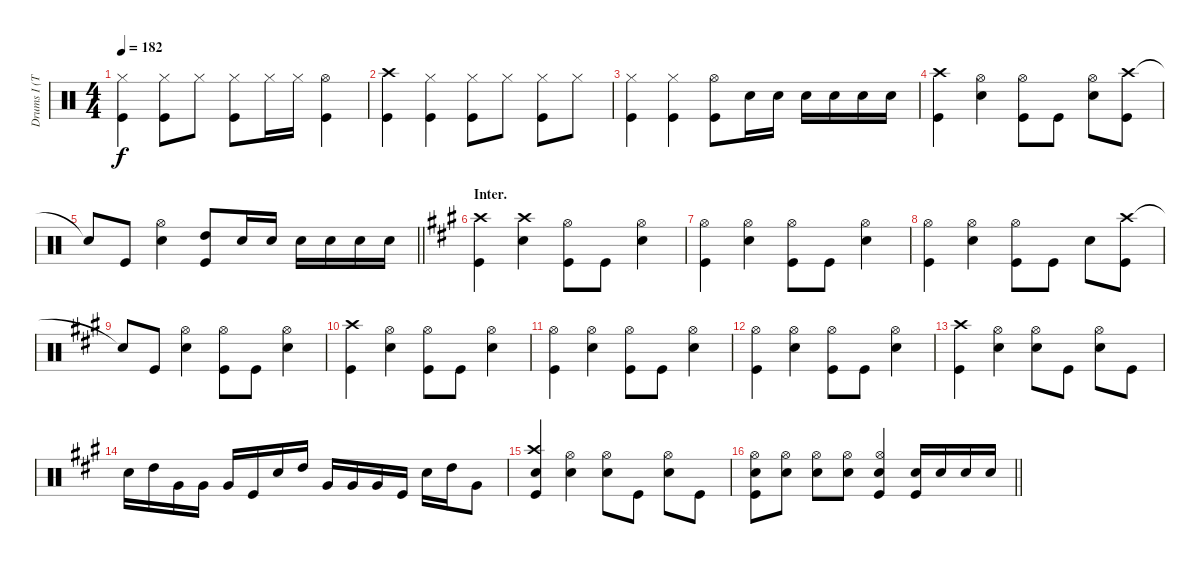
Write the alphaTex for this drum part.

\track ("Drums I (Tainaka Ritsu)" "Drums I (T") {instrument percussion}
\staff {score}
\articulation defaults
\ts (4 4)
\tempo 182
\clef neutral
\ks c
("Hi-Hat (closed)" "Kick (hit)").4{dy f} ("Hi-Hat (closed)" "Kick (hit)").8 "Hi-Hat (closed)".8 ("Hi-Hat (closed)" "Kick (hit)").8 "Hi-Hat (closed)".16 "Hi-Hat (closed)".16 ("Hi-Hat (open)" "Kick (hit)").4 |
("Crash high (hit)" "Kick (hit)").4 ("Hi-Hat (closed)" "Kick (hit)").4 ("Hi-Hat (closed)" "Kick (hit)").8 "Hi-Hat (closed)".8 ("Hi-Hat (closed)" "Kick (hit)").8 "Hi-Hat (closed)".8 |
("Hi-Hat (closed)" "Kick (hit)").4 ("Hi-Hat (closed)" "Kick (hit)").4 ("Hi-Hat (open)" "Kick (hit)").8 "Snare (hit) 2".16 "Snare (hit) 2".16 "Snare (hit) 2".16 "Snare (hit) 2".16 "Snare (hit) 2".16 "Snare (hit) 2".16 |
("Crash high (hit)" "Kick (hit)").4 ("Hi-Hat (open)" "Snare (hit) 2").4 ("Hi-Hat (open)" "Kick (hit)").8 "Kick (hit)".8 ("Hi-Hat (open)" "Snare (hit) 2").8 ("Crash high (hit)" "Kick (hit)").8 |
\barLineRight lightlight "Snare (hit)"{t}.8 "Kick (hit)".8
("Hi-Hat (open)" "Snare (hit) 2").4 ("High Tom (hit)" "Kick (hit)").8 "Snare (hit) 2".16 "Snare (hit) 2".16 "Snare (hit) 2".16 "Snare (hit) 2".16 "Snare (hit) 2".16 "Snare (hit) 2".16 |
\section ("" "Inter.")
\ks a
("Crash high (hit)" "Kick (hit)").4 ("Crash high (hit)" "Snare (hit) 2").4 ("Hi-Hat (open)" "Kick (hit)").8 "Kick (hit)".8 ("Hi-Hat (open)" "Snare (hit) 2").4 |
("Hi-Hat (open)" "Kick (hit)").4 ("Hi-Hat (open)" "Snare (hit) 2").4 ("Hi-Hat (open)" "Kick (hit)").8 "Kick (hit)".8 ("Hi-Hat (open)" "Snare (hit) 2").4 |
("Hi-Hat (open)" "Kick (hit)").4 ("Hi-Hat (open)" "Snare (hit) 2").4 ("Hi-Hat (open)" "Kick (hit)").8 "Kick (hit)".8 "Snare (hit) 2".8 ("Crash high (hit)" "Kick (hit)").8 |
"Snare (hit)"{t}.8 "Kick (hit)".8 ("Hi-Hat (open)" "Snare (hit) 2").4 ("Hi-Hat (open)" "Kick (hit)").8 "Kick (hit)".8 ("Hi-Hat (open)" "Snare (hit) 2").4 |
("Crash high (hit)" "Kick (hit)").4 ("Hi-Hat (open)" "Snare (hit) 2").4 ("Hi-Hat (open)" "Kick (hit)").8 "Kick (hit)".8 ("Hi-Hat (open)" "Snare (hit) 2").4 |
("Hi-Hat (open)" "Kick (hit)").4 ("Hi-Hat (open)" "Snare (hit) 2").4 ("Hi-Hat (open)" "Kick (hit)").8 "Kick (hit)".8 ("Hi-Hat (open)" "Snare (hit) 2").4 |
("Hi-Hat (open)" "Kick (hit)").4 ("Hi-Hat (open)" "Snare (hit) 2").4 ("Hi-Hat (open)" "Kick (hit)").8 "Kick (hit)".8 ("Hi-Hat (open)" "Snare (hit) 2").4 |
("Crash high (hit)" "Kick (hit)").4 ("Hi-Hat (open)" "Snare (hit) 2").4 ("Hi-Hat (open)" "Snare (hit) 2").8 "Kick (hit)".8 ("Hi-Hat (open)" "Snare (hit) 2").8 "Kick (hit)".8 |
"Snare (hit) 2".16 "High Tom (hit)".16 "Very Low Tom (hit)".16 "Very Low Tom (hit)".16 "Very Low Tom (hit)".16 "Kick (hit)".16 "Snare (hit) 2".16 "High Tom (hit)".16 "Very Low Tom (hit)".16 "Very Low Tom (hit)".16 "Very Low Tom (hit)".16 "Kick (hit)".16 "Snare (hit) 2".16 "High Tom (hit)".16 "Very Low Tom (hit)".8 |
("Crash high (hit)" "Snare (hit) 2" "Kick (hit)").4 ("Hi-Hat (open)" "Snare (hit) 2").4 ("Hi-Hat (open)" "Snare (hit) 2").8 "Kick (hit)".8 ("Hi-Hat (open)" "Snare (hit) 2").8 "Kick (hit)".8 |
\barLineRight lightlight
("Hi-Hat (open)" "Snare (hit) 2" "Kick (hit)").8 ("Hi-Hat (open)" "Snare (hit) 2").8 ("Hi-Hat (open)" "Snare (hit) 2").8 ("Hi-Hat (open)" "Snare (hit) 2").8 ("Hi-Hat (open)" "Snare (hit) 2" "Kick (hit)").4 ("Snare (hit) 2" "Kick (hit)").16 "Snare (hit) 2".16 "Snare (hit) 2".16 "Snare (hit) 2".16
